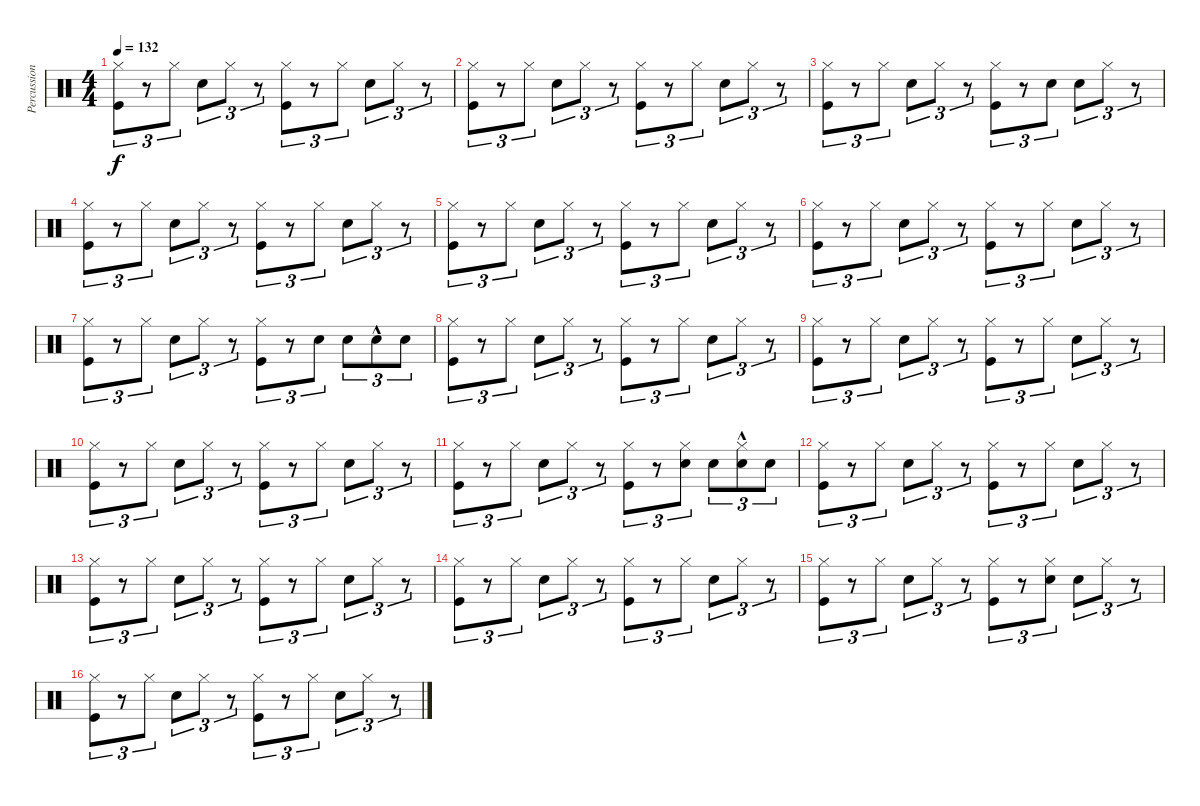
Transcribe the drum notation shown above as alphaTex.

\track ("Percussions" "Percussion") {instrument percussion}
\staff {score}
\articulation defaults
\ts (4 4)
\tempo 132
\clef neutral
\ks c
("Kick (hit)" "Hi-Hat (closed)").8{tu (3 2) dy f} r.8{tu (3 2)} "Hi-Hat (closed)".8{tu (3 2)} "Snare (hit) 2".8{tu (3 2)} "Hi-Hat (closed)".8{tu (3 2)} r.8{tu (3 2)} ("Kick (hit)" "Hi-Hat (closed)").8{tu (3 2)} r.8{tu (3 2)} "Hi-Hat (closed)".8{tu (3 2)} "Snare (hit) 2".8{tu (3 2)} "Hi-Hat (closed)".8{tu (3 2)} r.8{tu (3 2)} |
("Kick (hit)" "Hi-Hat (closed)").8{tu (3 2)} r.8{tu (3 2)} "Hi-Hat (closed)".8{tu (3 2)} "Snare (hit) 2".8{tu (3 2)} "Hi-Hat (closed)".8{tu (3 2)} r.8{tu (3 2)} ("Kick (hit)" "Hi-Hat (closed)").8{tu (3 2)} r.8{tu (3 2)} "Hi-Hat (closed)".8{tu (3 2)} "Snare (hit) 2".8{tu (3 2)} "Hi-Hat (closed)".8{tu (3 2)} r.8{tu (3 2)} |
("Kick (hit)" "Hi-Hat (closed)").8{tu (3 2)} r.8{tu (3 2)} "Hi-Hat (closed)".8{tu (3 2)} "Snare (hit) 2".8{tu (3 2)} "Hi-Hat (closed)".8{tu (3 2)} r.8{tu (3 2)} ("Kick (hit)" "Hi-Hat (closed)").8{tu (3 2)} r.8{tu (3 2)} "Snare (hit) 2".8{tu (3 2)} "Snare (hit) 2".8{tu (3 2)} "Hi-Hat (closed)".8{tu (3 2)} r.8{tu (3 2)} |
("Kick (hit)" "Hi-Hat (closed)").8{tu (3 2)} r.8{tu (3 2)} "Hi-Hat (closed)".8{tu (3 2)} "Snare (hit) 2".8{tu (3 2)} "Hi-Hat (closed)".8{tu (3 2)} r.8{tu (3 2)} ("Kick (hit)" "Hi-Hat (closed)").8{tu (3 2)} r.8{tu (3 2)} "Hi-Hat (closed)".8{tu (3 2)} "Snare (hit) 2".8{tu (3 2)} "Hi-Hat (closed)".8{tu (3 2)} r.8{tu (3 2)} |
("Kick (hit)" "Hi-Hat (closed)").8{tu (3 2)} r.8{tu (3 2)} "Hi-Hat (closed)".8{tu (3 2)} "Snare (hit) 2".8{tu (3 2)} "Hi-Hat (closed)".8{tu (3 2)} r.8{tu (3 2)} ("Kick (hit)" "Hi-Hat (closed)").8{tu (3 2)} r.8{tu (3 2)} "Hi-Hat (closed)".8{tu (3 2)} "Snare (hit) 2".8{tu (3 2)} "Hi-Hat (closed)".8{tu (3 2)} r.8{tu (3 2)} |
("Kick (hit)" "Hi-Hat (closed)").8{tu (3 2)} r.8{tu (3 2)} "Hi-Hat (closed)".8{tu (3 2)} "Snare (hit) 2".8{tu (3 2)} "Hi-Hat (closed)".8{tu (3 2)} r.8{tu (3 2)} ("Kick (hit)" "Hi-Hat (closed)").8{tu (3 2)} r.8{tu (3 2)} "Hi-Hat (closed)".8{tu (3 2)} "Snare (hit) 2".8{tu (3 2)} "Hi-Hat (closed)".8{tu (3 2)} r.8{tu (3 2)} |
("Kick (hit)" "Hi-Hat (closed)").8{tu (3 2)} r.8{tu (3 2)} "Hi-Hat (closed)".8{tu (3 2)} "Snare (hit) 2".8{tu (3 2)} "Hi-Hat (closed)".8{tu (3 2)} r.8{tu (3 2)} ("Kick (hit)" "Hi-Hat (closed)").8{tu (3 2)} r.8{tu (3 2)} "Snare (hit) 2".8{tu (3 2)} "Snare (hit) 2".8{tu (3 2)} "Snare (hit) 2"{hac}.8{tu (3 2)} "Snare (hit) 2".8{tu (3 2)} |
("Kick (hit)" "Hi-Hat (closed)").8{tu (3 2)} r.8{tu (3 2)} "Hi-Hat (closed)".8{tu (3 2)} "Snare (hit) 2".8{tu (3 2)} "Hi-Hat (closed)".8{tu (3 2)} r.8{tu (3 2)} ("Kick (hit)" "Hi-Hat (closed)").8{tu (3 2)} r.8{tu (3 2)} "Hi-Hat (closed)".8{tu (3 2)} "Snare (hit) 2".8{tu (3 2)} "Hi-Hat (closed)".8{tu (3 2)} r.8{tu (3 2)} |
("Kick (hit)" "Hi-Hat (closed)").8{tu (3 2)} r.8{tu (3 2)} "Hi-Hat (closed)".8{tu (3 2)} "Snare (hit) 2".8{tu (3 2)} "Hi-Hat (closed)".8{tu (3 2)} r.8{tu (3 2)} ("Kick (hit)" "Hi-Hat (closed)").8{tu (3 2)} r.8{tu (3 2)} "Hi-Hat (closed)".8{tu (3 2)} "Snare (hit) 2".8{tu (3 2)} "Hi-Hat (closed)".8{tu (3 2)} r.8{tu (3 2)} |
("Kick (hit)" "Hi-Hat (closed)").8{tu (3 2)} r.8{tu (3 2)} "Hi-Hat (closed)".8{tu (3 2)} "Snare (hit) 2".8{tu (3 2)} "Hi-Hat (closed)".8{tu (3 2)} r.8{tu (3 2)} ("Kick (hit)" "Hi-Hat (closed)").8{tu (3 2)} r.8{tu (3 2)} "Hi-Hat (closed)".8{tu (3 2)} "Snare (hit) 2".8{tu (3 2)} "Hi-Hat (closed)".8{tu (3 2)} r.8{tu (3 2)} |
("Kick (hit)" "Hi-Hat (closed)").8{tu (3 2)} r.8{tu (3 2)} "Hi-Hat (closed)".8{tu (3 2)} "Snare (hit) 2".8{tu (3 2)} "Hi-Hat (closed)".8{tu (3 2)} r.8{tu (3 2)} ("Kick (hit)" "Hi-Hat (closed)").8{tu (3 2)} r.8{tu (3 2)} ("Hi-Hat (closed)" "Snare (hit) 2").8{tu (3 2)} "Snare (hit) 2".8{tu (3 2)} ("Hi-Hat (closed)"{hac} "Snare (hit) 2"{hac}).8{tu (3 2)} "Snare (hit) 2".8{tu (3 2)} |
("Kick (hit)" "Hi-Hat (closed)").8{tu (3 2)} r.8{tu (3 2)} "Hi-Hat (closed)".8{tu (3 2)} "Snare (hit) 2".8{tu (3 2)} "Hi-Hat (closed)".8{tu (3 2)} r.8{tu (3 2)} ("Kick (hit)" "Hi-Hat (closed)").8{tu (3 2)} r.8{tu (3 2)} "Hi-Hat (closed)".8{tu (3 2)} "Snare (hit) 2".8{tu (3 2)} "Hi-Hat (closed)".8{tu (3 2)} r.8{tu (3 2)} |
("Kick (hit)" "Hi-Hat (closed)").8{tu (3 2)} r.8{tu (3 2)} "Hi-Hat (closed)".8{tu (3 2)} "Snare (hit) 2".8{tu (3 2)} "Hi-Hat (closed)".8{tu (3 2)} r.8{tu (3 2)} ("Kick (hit)" "Hi-Hat (closed)").8{tu (3 2)} r.8{tu (3 2)} "Hi-Hat (closed)".8{tu (3 2)} "Snare (hit) 2".8{tu (3 2)} "Hi-Hat (closed)".8{tu (3 2)} r.8{tu (3 2)} |
("Kick (hit)" "Hi-Hat (closed)").8{tu (3 2)} r.8{tu (3 2)} "Hi-Hat (closed)".8{tu (3 2)} "Snare (hit) 2".8{tu (3 2)} "Hi-Hat (closed)".8{tu (3 2)} r.8{tu (3 2)} ("Kick (hit)" "Hi-Hat (closed)").8{tu (3 2)} r.8{tu (3 2)} "Hi-Hat (closed)".8{tu (3 2)} "Snare (hit) 2".8{tu (3 2)} "Hi-Hat (closed)".8{tu (3 2)} r.8{tu (3 2)} |
("Kick (hit)" "Hi-Hat (closed)").8{tu (3 2)} r.8{tu (3 2)} "Hi-Hat (closed)".8{tu (3 2)} "Snare (hit) 2".8{tu (3 2)} "Hi-Hat (closed)".8{tu (3 2)} r.8{tu (3 2)} ("Kick (hit)" "Hi-Hat (closed)").8{tu (3 2)} r.8{tu (3 2)} ("Hi-Hat (closed)" "Snare (hit) 2").8{tu (3 2)} "Snare (hit) 2".8{tu (3 2)} "Hi-Hat (closed)".8{tu (3 2)} r.8{tu (3 2)} |
("Kick (hit)" "Hi-Hat (closed)").8{tu (3 2)} r.8{tu (3 2)} "Hi-Hat (closed)".8{tu (3 2)} "Snare (hit) 2".8{tu (3 2)} "Hi-Hat (closed)".8{tu (3 2)} r.8{tu (3 2)} ("Kick (hit)" "Hi-Hat (closed)").8{tu (3 2)} r.8{tu (3 2)} "Hi-Hat (closed)".8{tu (3 2)} "Snare (hit) 2".8{tu (3 2)} "Hi-Hat (closed)".8{tu (3 2)} r.8{tu (3 2)}
